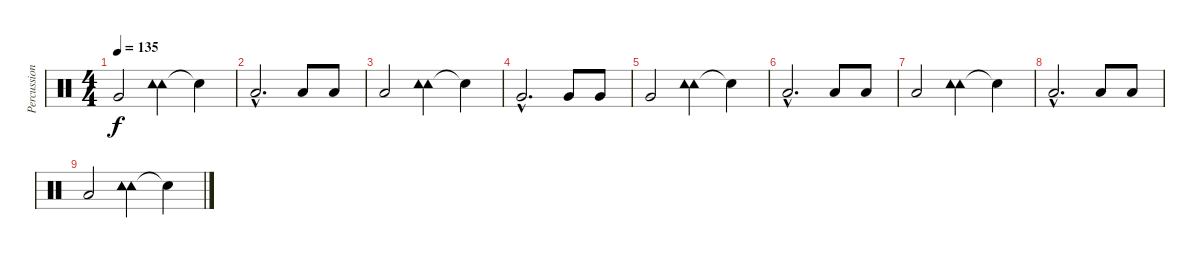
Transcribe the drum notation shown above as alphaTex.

\track ("Percussion" "Percussion") {instrument percussion}
\staff {score}
\articulation defaults
\ts (4 4)
\tempo 135
\clef neutral
\ks c "Very Low Tom (hit)".2{dy f}
("Tambourine (hit)" "Tambourine (hit)").4 "Snare (hit)"{t}.4 |
"Low Tom (hit)"{hac}.2{d} "Low Tom (hit)".8 "Low Tom (hit)".8 |
"Low Tom (hit)".2 ("Tambourine (hit)" "Tambourine (hit)").4 "Snare (hit)"{t}.4 |
"Very Low Tom (hit)"{hac}.2{d} "Very Low Tom (hit)".8 "Very Low Tom (hit)".8 |
"Very Low Tom (hit)".2 ("Tambourine (hit)" "Tambourine (hit)").4 "Snare (hit)"{t}.4 |
"Low Tom (hit)"{hac}.2{d} "Low Tom (hit)".8 "Low Tom (hit)".8 |
"Low Tom (hit)".2 ("Tambourine (hit)" "Tambourine (hit)").4 "Snare (hit)"{t}.4 |
"Low Tom (hit)"{hac}.2{d} "Low Tom (hit)".8 "Low Tom (hit)".8 |
"Low Tom (hit)".2 ("Tambourine (hit)" "Tambourine (hit)").4 "Snare (hit)"{t}.4
